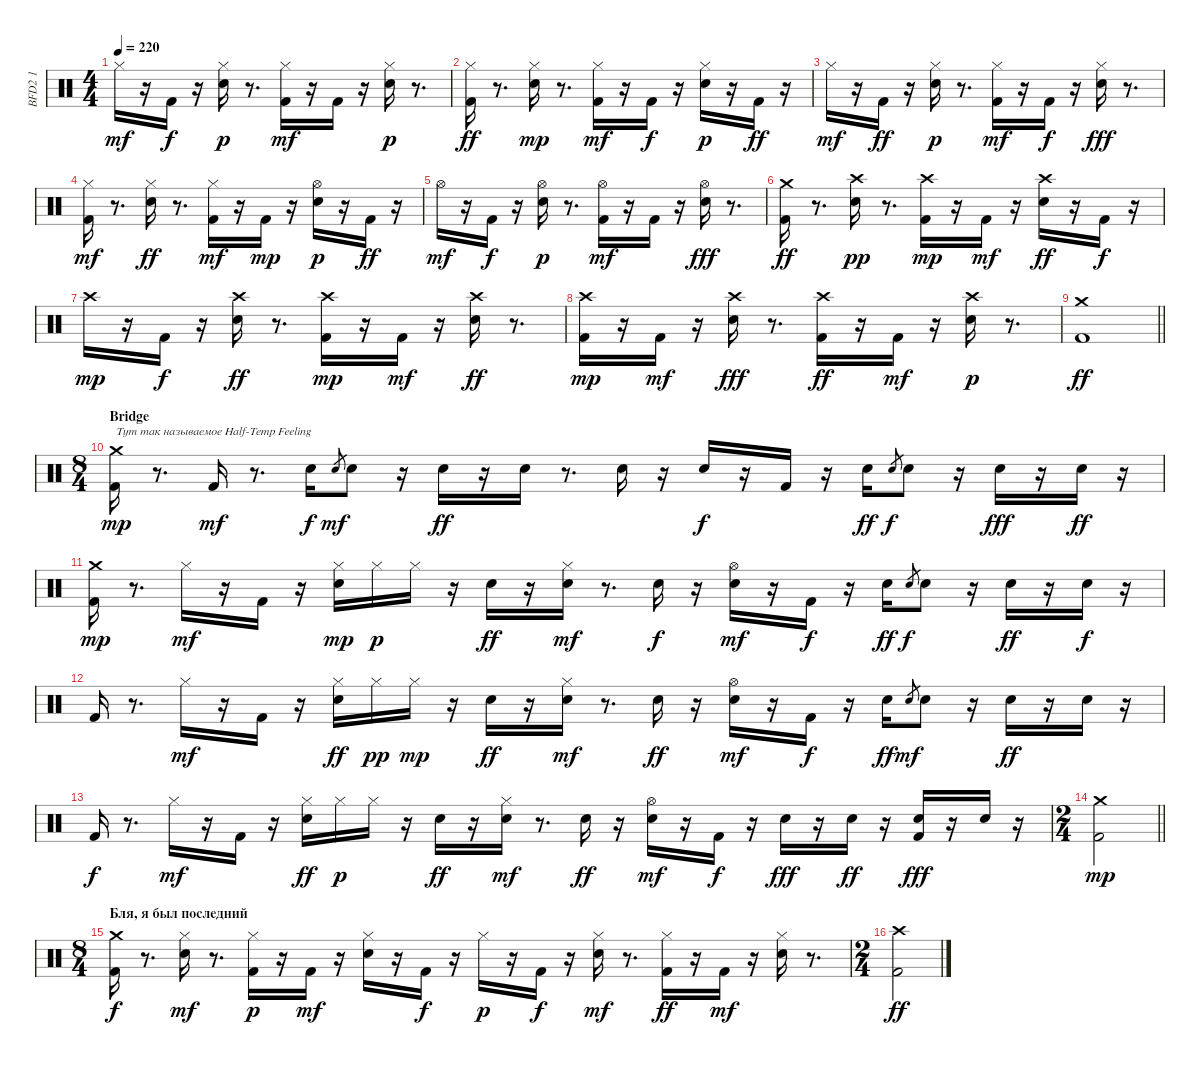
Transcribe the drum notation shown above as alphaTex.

\track ("BFD2 1" "BFD2 1") {instrument percussion}
\staff {score}
\articulation defaults
\ts (4 4)
\tempo 220
\clef neutral
\ks c "Hi-Hat (closed)".16{dy mf}
r.16 "Kick (hit) 2".16{dy f} r.16 ("Snare (hit) 2" "Hi-Hat (closed)").16{dy p} r.8{d} ("Hi-Hat (closed)" "Kick (hit) 2").16{dy mf} r.16 "Kick (hit) 2".16 r.16 ("Snare (hit) 2" "Hi-Hat (closed)").16{dy p} r.8{d} |
("Hi-Hat (closed)" "Kick (hit) 2").16{dy ff} r.8{d} ("Snare (hit) 2" "Hi-Hat (closed)").16{dy mp} r.8{d} ("Hi-Hat (closed)" "Kick (hit) 2").16{dy mf} r.16 "Kick (hit) 2".16{dy f} r.16 ("Snare (hit) 2" "Hi-Hat (closed)").16{dy p} r.16 "Kick (hit) 2".16{dy ff} r.16 |
"Hi-Hat (closed)".16{dy mf} r.16 "Kick (hit) 2".16{dy ff} r.16 ("Snare (hit) 2" "Hi-Hat (closed)").16{dy p} r.8{d} ("Hi-Hat (closed)" "Kick (hit) 2").16{dy mf} r.16 "Kick (hit) 2".16{dy f} r.16 ("Hi-Hat (closed)" "Snare (hit) 2").16{dy fff} r.8{d} |
("Kick (hit) 2" "Hi-Hat (closed)").16{dy mf} r.8{d} ("Hi-Hat (closed)" "Snare (hit) 2").16{dy ff} r.8{d} ("Hi-Hat (closed)" "Kick (hit) 2").16{dy mf} r.16 "Kick (hit) 2".16{dy mp} r.16 ("Snare (hit) 2" "Hi-Hat (open)").16{dy p} r.16 "Kick (hit) 2".16{dy ff} r.16 |
"Hi-Hat (open)".16{dy mf} r.16 "Kick (hit) 2".16{dy f} r.16 ("Snare (hit) 2" "Hi-Hat (open)").16{dy p} r.8{d} ("Hi-Hat (open)" "Kick (hit) 2").16{dy mf} r.16 "Kick (hit) 2".16 r.16 ("Hi-Hat (open)" "Snare (hit) 2").16{dy fff} r.8{d} |
("Kick (hit) 2" "Crash medium (hit)").16{dy ff} r.8{d} ("Snare (hit) 2" "Crash high (hit)").16{dy pp} r.8{d} ("Kick (hit) 2" "Crash high (hit)").16{dy mp} r.16 "Kick (hit) 2".16{dy mf} r.16 ("Crash high (hit)" "Snare (hit) 2").16{dy ff} r.16 "Kick (hit) 2".16{dy f} r.16 |
"Crash high (hit)".16{dy mp} r.16 "Kick (hit) 2".16{dy f} r.16 ("Crash high (hit)" "Snare (hit) 2").16{dy ff} r.8{d} ("Kick (hit) 2" "Crash high (hit)").16{dy mp} r.16 "Kick (hit) 2".16{dy mf} r.16 ("Crash high (hit)" "Snare (hit) 2").16{dy ff} r.8{d} |
("Kick (hit) 2" "Crash high (hit)").16{dy mp} r.16 "Kick (hit) 2".16{dy mf} r.16 ("Crash high (hit)" "Snare (hit) 2").16{dy fff} r.8{d} ("Crash high (hit)" "Kick (hit) 2").16{dy ff} r.16 "Kick (hit) 2".16{dy mf} r.16 ("Snare (hit) 2" "Crash high (hit)").16{dy p} r.8{d} |
\barLineRight lightlight
("Kick (hit) 2" "Crash medium (hit)").1{dy ff} |
\ts (8 4)
\section ("" "Bridge")
("Kick (hit) 2" "Crash medium (hit)").16{txt "Тут так называемое Half-Temp Feeling" dy mp} r.8{d} "Kick (hit) 2".16{dy mf} r.8{d} "Snare (hit) 2".16{dy f} "Snare (hit) 2".8{gr dy mf} "Snare (hit) 2".8 r.16 "Snare (hit) 2".16{dy ff} r.16 "Snare (hit) 2".16 r.8{d} "Snare (hit) 2".16 r.16 "Snare (hit) 2".16{dy f} r.16 "Kick (hit) 2".16 r.16 "Snare (hit) 2".16{dy ff} "Snare (hit) 2".8{gr dy f} "Snare (hit) 2".8 r.16 "Snare (hit) 2".16{dy fff} r.16 "Snare (hit) 2".16{dy ff} r.16 |
("Kick (hit) 2" "Crash medium (hit)").16{dy mp} r.8{d} "Hi-Hat (closed)".16{dy mf} r.16 "Kick (hit) 2".16 r.16 ("Hi-Hat (closed)" "Snare (hit) 2").16{dy mp} "Hi-Hat (closed)".16{dy p} "Hi-Hat (closed)".16 r.16 "Snare (hit) 2".16{dy ff} r.16 ("Hi-Hat (closed)" "Snare (hit) 2").16{dy mf} r.8{d} "Snare (hit) 2".16{dy f} r.16 ("Electric Snare (hit)" "Hi-Hat (open)").16{dy mf} r.16 "Kick (hit) 2".16{dy f} r.16 "Snare (hit) 2".16{dy ff} "Snare (hit) 2".8{gr dy f} "Snare (hit) 2".8 r.16 "Snare (hit) 2".16{dy ff} r.16 "Snare (hit) 2".16{dy f} r.16 |
"Kick (hit) 2".16 r.8{d} "Hi-Hat (closed)".16{dy mf} r.16 "Kick (hit) 2".16 r.16 ("Hi-Hat (closed)" "Snare (hit) 2").16{dy ff} "Hi-Hat (closed)".16{dy pp} "Hi-Hat (closed)".16{dy mp} r.16 "Snare (hit) 2".16{dy ff} r.16 ("Hi-Hat (closed)" "Snare (hit) 2").16{dy mf} r.8{d} "Snare (hit) 2".16{dy ff} r.16 ("Hi-Hat (open)" "Electric Snare (hit)").16{dy mf} r.16 "Kick (hit) 2".16{dy f} r.16 "Snare (hit) 2".16{dy ff} "Snare (hit) 2".8{gr dy mf} "Snare (hit) 2".8 r.16 "Snare (hit) 2".16{dy ff} r.16 "Snare (hit) 2".16 r.16 |
"Kick (hit) 2".16{dy f} r.8{d} "Hi-Hat (closed)".16{dy mf} r.16 "Kick (hit) 2".16 r.16 ("Hi-Hat (closed)" "Snare (hit) 2").16{dy ff} "Hi-Hat (closed)".16{dy p} "Hi-Hat (closed)".16 r.16 "Snare (hit) 2".16{dy ff} r.16 ("Hi-Hat (closed)" "Snare (hit) 2").16{dy mf} r.8{d} "Snare (hit) 2".16{dy ff} r.16 ("Snare (hit) 2" "Hi-Hat (open)").16{dy mf} r.16 "Kick (hit) 2".16{dy f} r.16 "Snare (hit) 2".16{dy fff} r.16 "Snare (hit) 2".16{dy ff} r.16 ("Kick (hit) 2" "Snare (hit) 2").16{dy fff} r.16 "Snare (hit) 2".16 r.16 |
\ts (2 4)
\barLineRight lightlight
("Kick (hit) 2" "Crash medium (hit)").2{dy mp} |
\ts (8 4)
\section ("" "Бля, я был последний")
("Crash medium (hit)" "Kick (hit) 2").16{dy f} r.8{d} ("Snare (hit) 2" "Hi-Hat (closed)").16{dy mf} r.8{d} ("Hi-Hat (closed)" "Kick (hit) 2").16{dy p} r.16 "Kick (hit) 2".16{dy mf} r.16 ("Snare (hit) 2" "Hi-Hat (closed)").16 r.16 "Kick (hit) 2".16{dy f} r.16 "Hi-Hat (closed)".16{dy p} r.16 "Kick (hit) 2".16{dy f} r.16 ("Hi-Hat (closed)" "Snare (hit) 2").16{dy mf} r.8{d} ("Hi-Hat (closed)" "Kick (hit) 2").16{dy ff} r.16 "Kick (hit) 2".16{dy mf} r.16 ("Snare (hit) 2" "Hi-Hat (closed)").16 r.8{d} |
\ts (2 4)
("Crash high (hit)" "Kick (hit) 2").2{dy ff}
